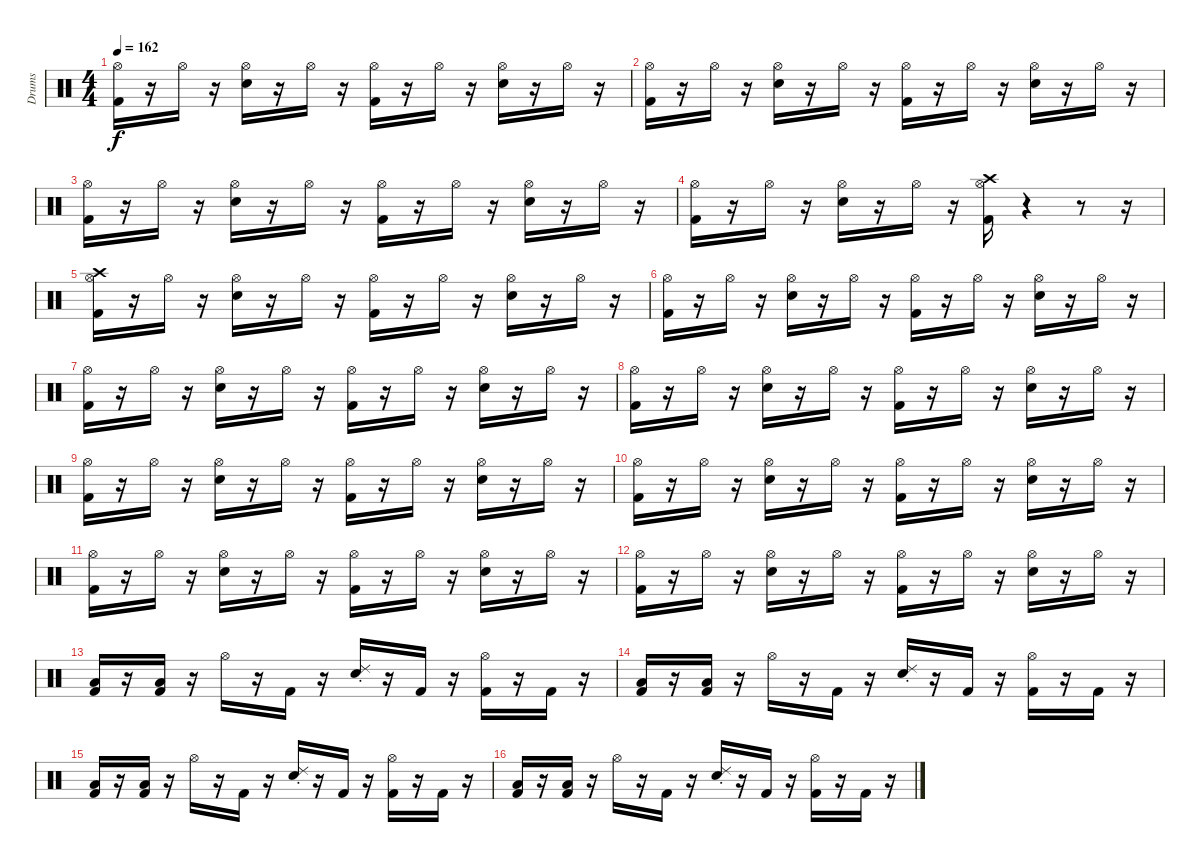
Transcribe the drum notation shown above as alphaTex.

\track ("Drums" "Drums") {instrument percussion}
\staff {score}
\articulation defaults
\ts (4 4)
\tempo 162
\clef neutral
\ks c
("Kick (hit) 2" "Hi-Hat (open)").16{dy f} r.16 "Hi-Hat (open)".16 r.16 ("Electric Snare (hit)" "Hi-Hat (open)").16 r.16 "Hi-Hat (open)".16 r.16 ("Hi-Hat (open)" "Kick (hit) 2").16 r.16 "Hi-Hat (open)".16 r.16 ("Hi-Hat (open)" "Electric Snare (hit)").16 r.16 "Hi-Hat (open)".16 r.16 |
("Kick (hit) 2" "Hi-Hat (open)").16 r.16 "Hi-Hat (open)".16 r.16 ("Electric Snare (hit)" "Hi-Hat (open)").16 r.16 "Hi-Hat (open)".16 r.16 ("Hi-Hat (open)" "Kick (hit) 2").16 r.16 "Hi-Hat (open)".16 r.16 ("Hi-Hat (open)" "Electric Snare (hit)").16 r.16 "Hi-Hat (open)".16 r.16 |
("Kick (hit) 2" "Hi-Hat (open)").16 r.16 "Hi-Hat (open)".16 r.16 ("Electric Snare (hit)" "Hi-Hat (open)").16 r.16 "Hi-Hat (open)".16 r.16 ("Hi-Hat (open)" "Kick (hit) 2").16 r.16 "Hi-Hat (open)".16 r.16 ("Hi-Hat (open)" "Electric Snare (hit)").16 r.16 "Hi-Hat (open)".16 r.16 |
("Kick (hit) 2" "Hi-Hat (open)").16 r.16 "Hi-Hat (open)".16 r.16 ("Electric Snare (hit)" "Hi-Hat (open)").16 r.16 "Hi-Hat (open)".16 r.16 ("Hi-Hat (open)" "Kick (hit) 2" "Crash high (hit)").16 r.4 r.8 r.16 |
("Kick (hit) 2" "Hi-Hat (open)" "Crash high (hit)").16 r.16 "Hi-Hat (open)".16 r.16 ("Electric Snare (hit)" "Hi-Hat (open)").16 r.16 "Hi-Hat (open)".16 r.16 ("Hi-Hat (open)" "Kick (hit) 2").16 r.16 "Hi-Hat (open)".16 r.16 ("Hi-Hat (open)" "Electric Snare (hit)").16 r.16 "Hi-Hat (open)".16 r.16 |
("Kick (hit) 2" "Hi-Hat (open)").16 r.16 "Hi-Hat (open)".16 r.16 ("Electric Snare (hit)" "Hi-Hat (open)").16 r.16 "Hi-Hat (open)".16 r.16 ("Hi-Hat (open)" "Kick (hit) 2").16 r.16 "Hi-Hat (open)".16 r.16 ("Hi-Hat (open)" "Electric Snare (hit)").16 r.16 "Hi-Hat (open)".16 r.16 |
("Kick (hit) 2" "Hi-Hat (open)").16 r.16 "Hi-Hat (open)".16 r.16 ("Electric Snare (hit)" "Hi-Hat (open)").16 r.16 "Hi-Hat (open)".16 r.16 ("Hi-Hat (open)" "Kick (hit) 2").16 r.16 "Hi-Hat (open)".16 r.16 ("Hi-Hat (open)" "Electric Snare (hit)").16 r.16 "Hi-Hat (open)".16 r.16 |
("Kick (hit) 2" "Hi-Hat (open)").16 r.16 "Hi-Hat (open)".16 r.16 ("Electric Snare (hit)" "Hi-Hat (open)").16 r.16 "Hi-Hat (open)".16 r.16 ("Hi-Hat (open)" "Kick (hit) 2").16 r.16 "Hi-Hat (open)".16 r.16 ("Hi-Hat (open)" "Electric Snare (hit)").16 r.16 "Hi-Hat (open)".16 r.16 |
("Kick (hit) 2" "Hi-Hat (open)").16 r.16 "Hi-Hat (open)".16 r.16 ("Electric Snare (hit)" "Hi-Hat (open)").16 r.16 "Hi-Hat (open)".16 r.16 ("Hi-Hat (open)" "Kick (hit) 2").16 r.16 "Hi-Hat (open)".16 r.16 ("Hi-Hat (open)" "Electric Snare (hit)").16 r.16 "Hi-Hat (open)".16 r.16 |
("Kick (hit) 2" "Hi-Hat (open)").16 r.16 "Hi-Hat (open)".16 r.16 ("Electric Snare (hit)" "Hi-Hat (open)").16 r.16 "Hi-Hat (open)".16 r.16 ("Hi-Hat (open)" "Kick (hit) 2").16 r.16 "Hi-Hat (open)".16 r.16 ("Hi-Hat (open)" "Electric Snare (hit)").16 r.16 "Hi-Hat (open)".16 r.16 |
("Kick (hit) 2" "Hi-Hat (open)").16 r.16 "Hi-Hat (open)".16 r.16 ("Electric Snare (hit)" "Hi-Hat (open)").16 r.16 "Hi-Hat (open)".16 r.16 ("Hi-Hat (open)" "Kick (hit) 2").16 r.16 "Hi-Hat (open)".16 r.16 ("Hi-Hat (open)" "Electric Snare (hit)").16 r.16 "Hi-Hat (open)".16 r.16 |
("Kick (hit) 2" "Hi-Hat (open)").16 r.16 "Hi-Hat (open)".16 r.16 ("Electric Snare (hit)" "Hi-Hat (open)").16 r.16 "Hi-Hat (open)".16 r.16 ("Hi-Hat (open)" "Kick (hit) 2").16 r.16 "Hi-Hat (open)".16 r.16 ("Hi-Hat (open)" "Electric Snare (hit)").16 r.16 "Hi-Hat (open)".16 r.16 |
("Kick (hit) 2" "Low Floor Tom (hit)").16 r.16 ("Kick (hit) 2" "Low Floor Tom (hit)").16 r.16 "Hi-Hat (open)".16 r.16 "Kick (hit) 2".16 r.16 ("Electric Snare (hit)" "Ride (choke) 2").16 r.16 "Kick (hit) 2".16 r.16 ("Kick (hit) 2" "Hi-Hat (open)").16 r.16 "Kick (hit) 2".16 r.16 |
("Kick (hit) 2" "Low Floor Tom (hit)").16 r.16 ("Kick (hit) 2" "Low Floor Tom (hit)").16 r.16 "Hi-Hat (open)".16 r.16 "Kick (hit) 2".16 r.16 ("Electric Snare (hit)" "Ride (choke) 2").16 r.16 "Kick (hit) 2".16 r.16 ("Kick (hit) 2" "Hi-Hat (open)").16 r.16 "Kick (hit) 2".16 r.16 |
("Kick (hit) 2" "Low Floor Tom (hit)").16 r.16 ("Kick (hit) 2" "Low Floor Tom (hit)").16 r.16 "Hi-Hat (open)".16 r.16 "Kick (hit) 2".16 r.16 ("Electric Snare (hit)" "Ride (choke) 2").16 r.16 "Kick (hit) 2".16 r.16 ("Kick (hit) 2" "Hi-Hat (open)").16 r.16 "Kick (hit) 2".16 r.16 |
("Kick (hit) 2" "Low Floor Tom (hit)").16 r.16 ("Kick (hit) 2" "Low Floor Tom (hit)").16 r.16 "Hi-Hat (open)".16 r.16 "Kick (hit) 2".16 r.16 ("Electric Snare (hit)" "Ride (choke) 2").16 r.16 "Kick (hit) 2".16 r.16 ("Kick (hit) 2" "Hi-Hat (open)").16 r.16 "Kick (hit) 2".16 r.16
